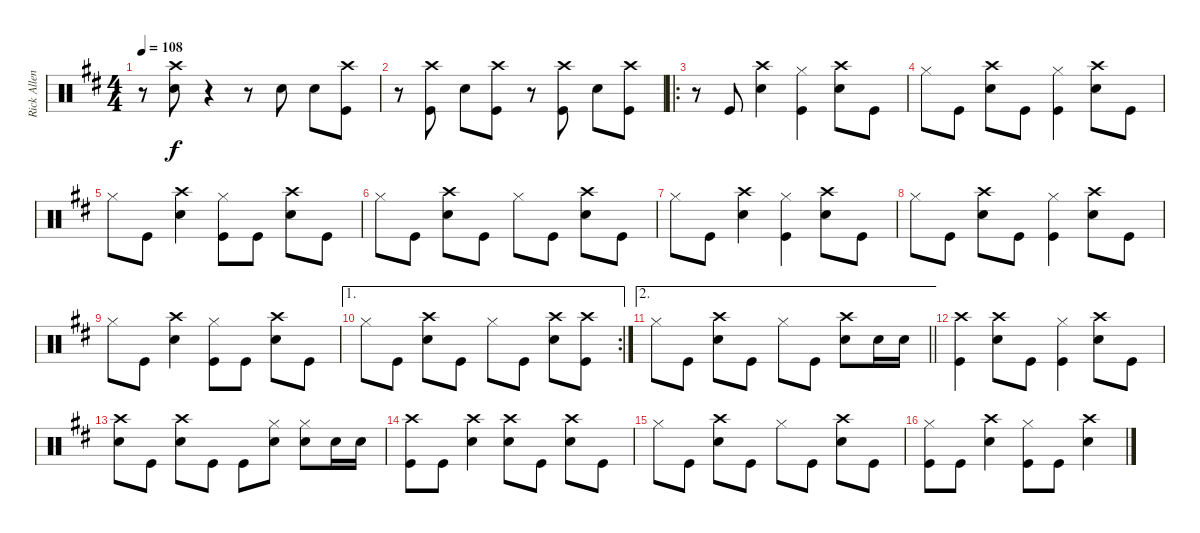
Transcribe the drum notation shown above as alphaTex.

\track ("Rick Allen" "Rick Allen") {instrument percussion}
\staff {score}
\articulation defaults
\ts (4 4)
\tempo 108
\clef neutral
\ks d
r.8{dy f} ("Crash high (hit)" "Snare (hit) 2").8 r.4 r.8 "Snare (hit) 2".8 "Snare (hit) 2".8 ("Crash high (hit)" "Kick (hit)").8 |
r.8 ("Crash high (hit)" "Kick (hit)").8 "Snare (hit) 2".8 ("Crash high (hit)" "Kick (hit)").8 r.8 ("Crash high (hit)" "Kick (hit)").8 "Snare (hit) 2".8 ("Crash high (hit)" "Kick (hit)").8 |
\ro
r.8 "Kick (hit)".8 ("Crash high (hit)" "Snare (hit) 2").4 ("Hi-Hat (closed)" "Kick (hit)").4 ("Crash high (hit)" "Snare (hit) 2").8 "Kick (hit)".8 |
"Hi-Hat (closed)".8 "Kick (hit)".8 ("Crash high (hit)" "Snare (hit) 2").8 "Kick (hit)".8 ("Hi-Hat (closed)" "Kick (hit)").4 ("Crash high (hit)" "Snare (hit) 2").8 "Kick (hit)".8 |
"Hi-Hat (closed)".8 "Kick (hit)".8 ("Crash high (hit)" "Snare (hit) 2").4 ("Hi-Hat (closed)" "Kick (hit)").8 "Kick (hit)".8 ("Crash high (hit)" "Snare (hit) 2").8 "Kick (hit)".8 |
"Hi-Hat (closed)".8 "Kick (hit)".8 ("Crash high (hit)" "Snare (hit) 2").8 "Kick (hit)".8 "Hi-Hat (closed)".8 "Kick (hit)".8 ("Crash high (hit)" "Snare (hit) 2").8 "Kick (hit)".8 |
"Hi-Hat (closed)".8 "Kick (hit)".8 ("Crash high (hit)" "Snare (hit) 2").4 ("Hi-Hat (closed)" "Kick (hit)").4 ("Crash high (hit)" "Snare (hit) 2").8 "Kick (hit)".8 |
"Hi-Hat (closed)".8 "Kick (hit)".8 ("Crash high (hit)" "Snare (hit) 2").8 "Kick (hit)".8 ("Hi-Hat (closed)" "Kick (hit)").4 ("Crash high (hit)" "Snare (hit) 2").8 "Kick (hit)".8 |
"Hi-Hat (closed)".8 "Kick (hit)".8 ("Crash high (hit)" "Snare (hit) 2").4 ("Hi-Hat (closed)" "Kick (hit)").8 "Kick (hit)".8 ("Crash high (hit)" "Snare (hit) 2").8 "Kick (hit)".8 |
\ae 1
\rc 2 "Hi-Hat (closed)".8 "Kick (hit)".8
("Crash high (hit)" "Snare (hit) 2").8 "Kick (hit)".8 "Hi-Hat (closed)".8 "Kick (hit)".8 ("Crash high (hit)" "Snare (hit) 2").8 ("Crash high (hit)" "Kick (hit)").8 |
\ae 2
\barLineRight lightlight "Hi-Hat (closed)".8 "Kick (hit)".8
("Crash high (hit)" "Snare (hit) 2").8 "Kick (hit)".8 "Hi-Hat (closed)".8 "Kick (hit)".8 ("Crash high (hit)" "Snare (hit) 2").8 "Snare (hit) 2".16 "Snare (hit) 2".16 |
("Crash high (hit)" "Kick (hit)").4 ("Crash high (hit)" "Snare (hit) 2").8 "Kick (hit)".8 ("Hi-Hat (closed)" "Kick (hit)").4 ("Crash high (hit)" "Snare (hit) 2").8 "Kick (hit)".8 |
("Crash high (hit)" "Snare (hit) 2").8 "Kick (hit)".8 ("Crash high (hit)" "Snare (hit) 2").8 "Kick (hit)".8 "Kick (hit)".8 ("Hi-Hat (closed)" "Snare (hit) 2").8 ("Hi-Hat (closed)" "Snare (hit) 2").8 "Snare (hit) 2".16 "Snare (hit) 2".16 |
("Crash high (hit)" "Kick (hit)").8 "Kick (hit)".8 ("Crash high (hit)" "Snare (hit) 2").4 ("Crash high (hit)" "Snare (hit) 2").8 "Kick (hit)".8 ("Crash high (hit)" "Snare (hit) 2").8 "Kick (hit)".8 |
"Hi-Hat (closed)".8 "Kick (hit)".8 ("Crash high (hit)" "Snare (hit) 2").8 "Kick (hit)".8 "Hi-Hat (closed)".8 "Kick (hit)".8 ("Crash high (hit)" "Snare (hit) 2").8 "Kick (hit)".8 |
("Hi-Hat (closed)" "Kick (hit)").8 "Kick (hit)".8 ("Crash high (hit)" "Snare (hit) 2").4 ("Hi-Hat (closed)" "Kick (hit)").8 "Kick (hit)".8 ("Crash high (hit)" "Snare (hit) 2").4
